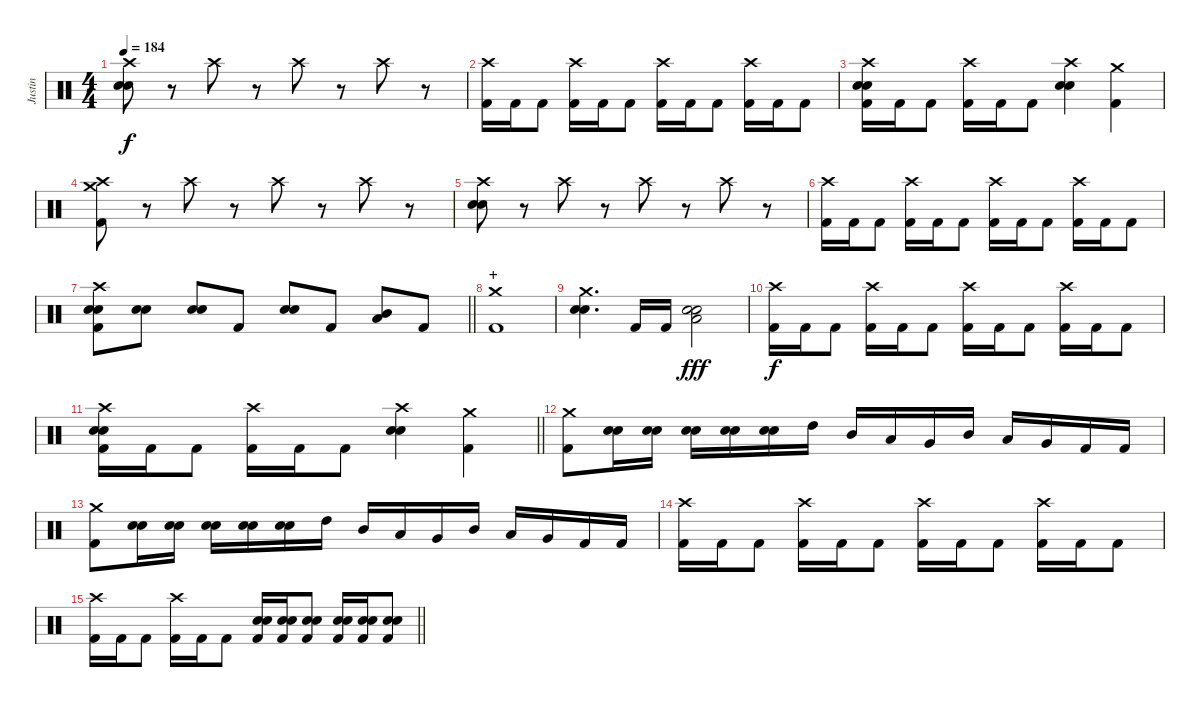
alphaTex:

\track ("Justin" "Justin") {instrument percussion}
\staff {score}
\articulation defaults
\ts (4 4)
\tempo 184
\clef neutral
\ks c
("Crash high (hit)" "Electric Snare (hit)" "Snare (hit) 2").8{dy f} r.8 "Crash high (hit)".8 r.8 "Crash high (hit)".8 r.8 "Crash high (hit)".8 r.8 |
("Crash high (hit)" "Kick (hit) 2").16 "Kick (hit) 2".16 "Kick (hit) 2".8 ("Crash high (hit)" "Kick (hit) 2").16 "Kick (hit) 2".16 "Kick (hit) 2".8 ("Crash high (hit)" "Kick (hit) 2").16 "Kick (hit) 2".16 "Kick (hit) 2".8 ("Crash high (hit)" "Kick (hit) 2").16 "Kick (hit) 2".16 "Kick (hit) 2".8 |
("Crash high (hit)" "Electric Snare (hit)" "Snare (hit) 2" "Kick (hit) 2").16 "Kick (hit) 2".16 "Kick (hit) 2".8 ("Crash high (hit)" "Kick (hit) 2").16 "Kick (hit) 2".16 "Kick (hit) 2".8 ("Crash high (hit)" "Electric Snare (hit)" "Snare (hit) 2").4 ("Crash medium (hit)" "Kick (hit) 2").4 |
("Crash medium (hit)" "Crash high (hit)" "Kick (hit) 2").8 r.8 "Crash high (hit)".8 r.8 "Crash high (hit)".8 r.8 "Crash high (hit)".8 r.8 |
("Crash high (hit)" "Electric Snare (hit)" "Snare (hit) 2").8 r.8 "Crash high (hit)".8 r.8 "Crash high (hit)".8 r.8 "Crash high (hit)".8 r.8 |
("Crash high (hit)" "Kick (hit) 2").16 "Kick (hit) 2".16 "Kick (hit) 2".8 ("Crash high (hit)" "Kick (hit) 2").16 "Kick (hit) 2".16 "Kick (hit) 2".8 ("Crash high (hit)" "Kick (hit) 2").16 "Kick (hit) 2".16 "Kick (hit) 2".8 ("Crash high (hit)" "Kick (hit) 2").16 "Kick (hit) 2".16 "Kick (hit) 2".8 |
\barLineRight lightlight
("Crash high (hit)" "Electric Snare (hit)" "Snare (hit) 2" "Kick (hit) 2").8 ("Electric Snare (hit)" "Snare (hit) 2").8 ("Electric Snare (hit)" "Snare (hit) 2").8 "Kick (hit) 2".8 ("Electric Snare (hit)" "Snare (hit) 2").8 "Kick (hit) 2".8 ("Mid Tom (hit)" "Low Tom (hit)").8 "Kick (hit) 2".8 |
\section ("" "+")
("Crash medium (hit)" "Kick (hit) 2").1 |
("Crash medium (hit)" "Electric Snare (hit)" "Snare (hit) 2").4{d} "Kick (hit) 2".16 "Kick (hit) 2".16 ("Electric Snare (hit)" "Snare (hit) 2" "Low Floor Tom (hit)").2{dy fff} |
("Crash high (hit)" "Kick (hit) 2").16{dy f} "Kick (hit) 2".16 "Kick (hit) 2".8 ("Crash high (hit)" "Kick (hit) 2").16 "Kick (hit) 2".16 "Kick (hit) 2".8 ("Crash high (hit)" "Kick (hit) 2").16 "Kick (hit) 2".16 "Kick (hit) 2".8 ("Crash high (hit)" "Kick (hit) 2").16 "Kick (hit) 2".16 "Kick (hit) 2".8 |
\barLineRight lightlight
("Crash high (hit)" "Electric Snare (hit)" "Snare (hit) 2" "Kick (hit) 2").16 "Kick (hit) 2".16 "Kick (hit) 2".8 ("Crash high (hit)" "Kick (hit) 2").16 "Kick (hit) 2".16 "Kick (hit) 2".8 ("Crash high (hit)" "Electric Snare (hit)" "Snare (hit) 2").4 ("Crash medium (hit)" "Kick (hit) 2").4 |
("Crash medium (hit)" "Kick (hit) 2").8 ("Electric Snare (hit)" "Snare (hit) 2").16 ("Electric Snare (hit)" "Snare (hit) 2").16 ("Electric Snare (hit)" "Snare (hit) 2").16 ("Electric Snare (hit)" "Snare (hit) 2").16 ("Electric Snare (hit)" "Snare (hit) 2").16 "High Tom (hit)".16 "Mid Tom (hit)".16 "Low Tom (hit)".16 "Very Low Tom (hit)".16 "Mid Tom (hit)".16 "Low Tom (hit)".16 "Very Low Tom (hit)".16 "Kick (hit) 2".16 "Kick (hit) 2".16 |
("Crash medium (hit)" "Kick (hit) 2").8 ("Electric Snare (hit)" "Snare (hit) 2").16 ("Electric Snare (hit)" "Snare (hit) 2").16 ("Electric Snare (hit)" "Snare (hit) 2").16 ("Electric Snare (hit)" "Snare (hit) 2").16 ("Electric Snare (hit)" "Snare (hit) 2").16 "High Tom (hit)".16 "Mid Tom (hit)".16 "Low Tom (hit)".16 "Very Low Tom (hit)".16 "Mid Tom (hit)".16 "Low Tom (hit)".16 "Very Low Tom (hit)".16 "Kick (hit) 2".16 "Kick (hit) 2".16 |
("Crash high (hit)" "Kick (hit) 2").16 "Kick (hit) 2".16 "Kick (hit) 2".8 ("Crash high (hit)" "Kick (hit) 2").16 "Kick (hit) 2".16 "Kick (hit) 2".8 ("Crash high (hit)" "Kick (hit) 2").16 "Kick (hit) 2".16 "Kick (hit) 2".8 ("Crash high (hit)" "Kick (hit) 2").16 "Kick (hit) 2".16 "Kick (hit) 2".8 |
\barLineRight lightlight
("Crash high (hit)" "Kick (hit) 2").16 "Kick (hit) 2".16 "Kick (hit) 2".8 ("Crash high (hit)" "Kick (hit) 2").16 "Kick (hit) 2".16 "Kick (hit) 2".8 ("Electric Snare (hit)" "Snare (hit) 2" "Kick (hit) 2").16 ("Electric Snare (hit)" "Snare (hit) 2" "Kick (hit) 2").16 ("Electric Snare (hit)" "Snare (hit) 2" "Kick (hit) 2").8 ("Electric Snare (hit)" "Snare (hit) 2" "Kick (hit) 2").16 ("Electric Snare (hit)" "Snare (hit) 2" "Kick (hit) 2").16 ("Electric Snare (hit)" "Snare (hit) 2" "Kick (hit) 2").8
